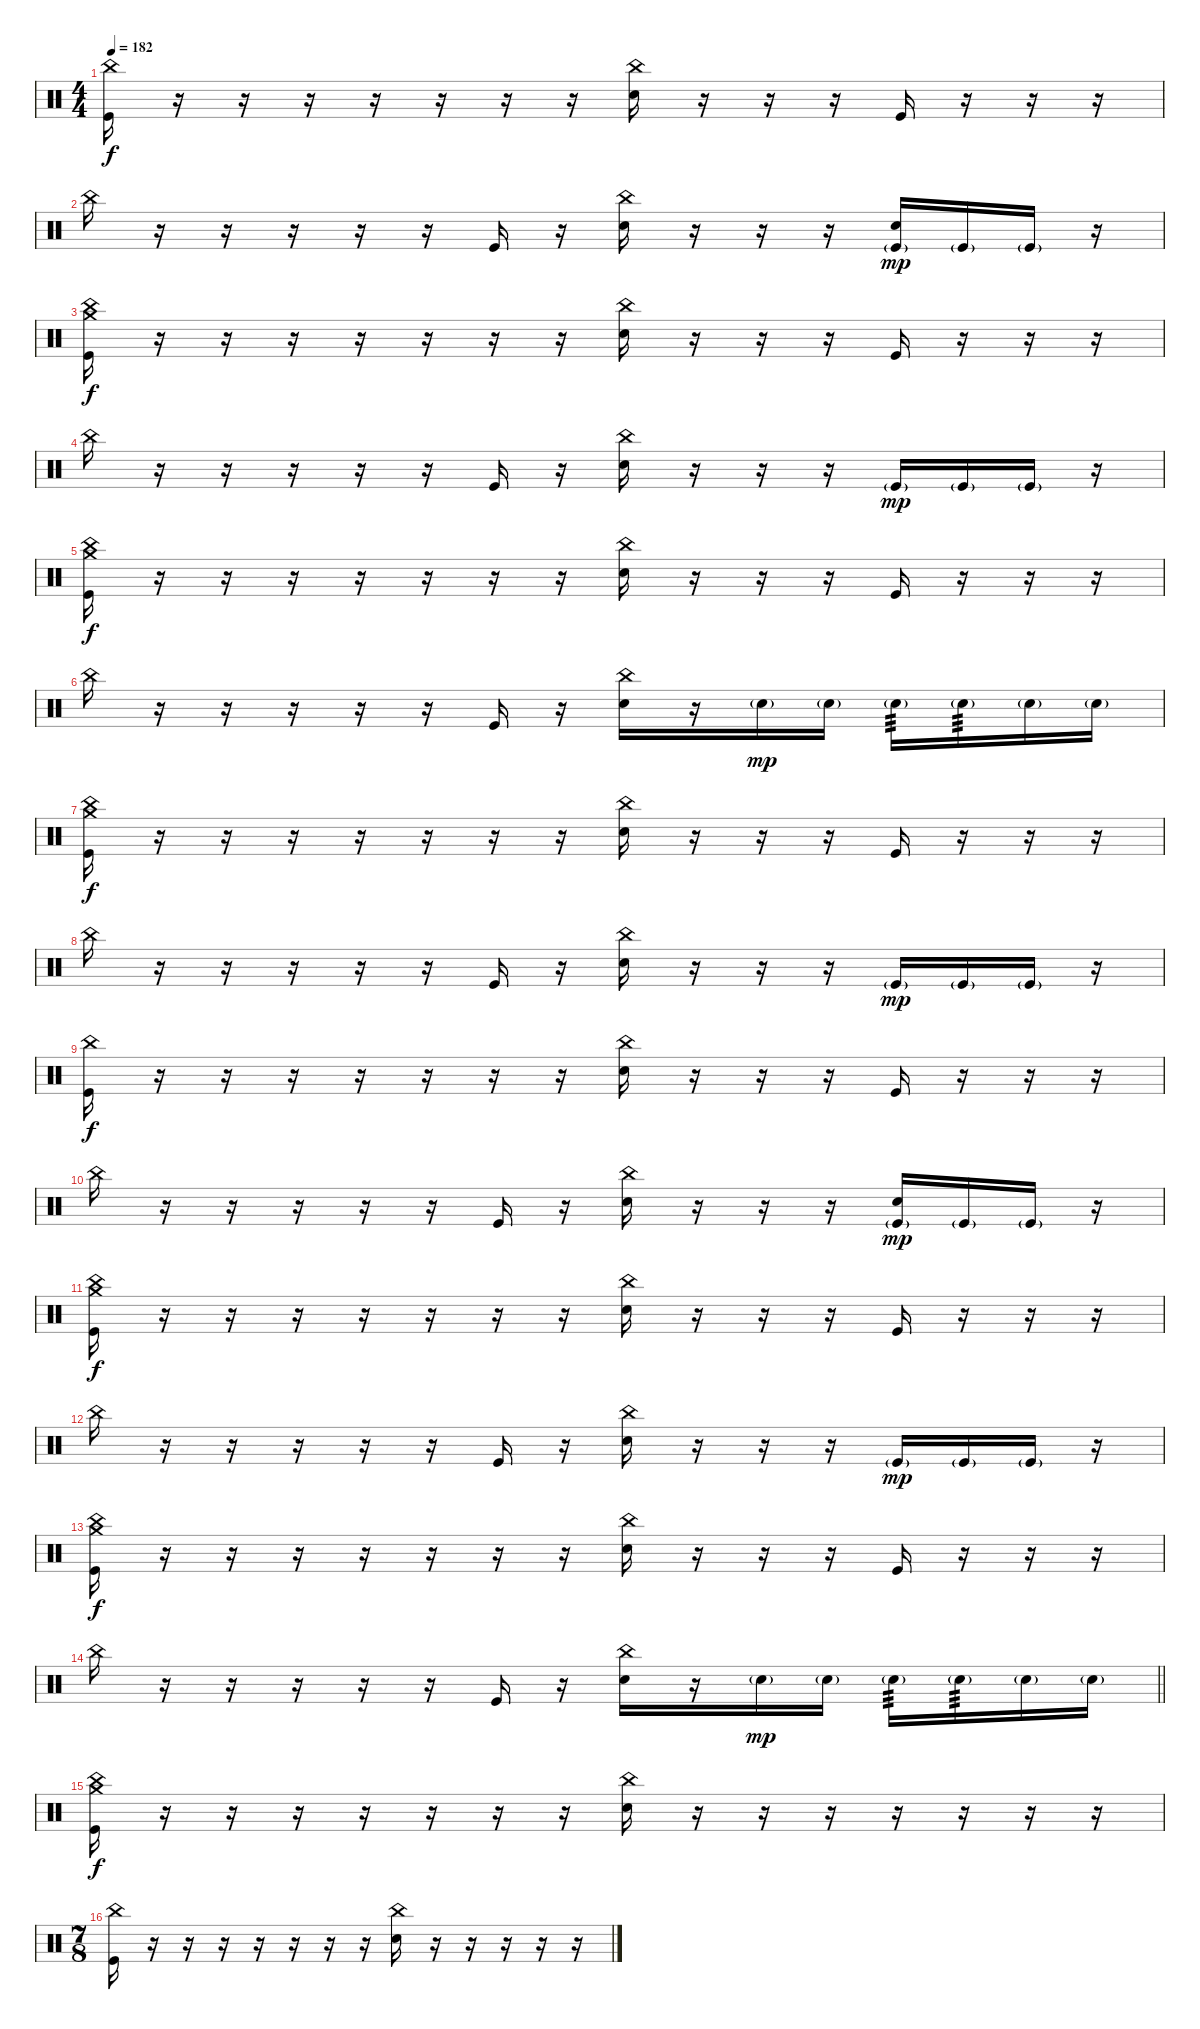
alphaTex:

\track "" {instrument percussion}
\staff {score}
\articulation defaults
\ts (4 4)
\tempo 182
\clef neutral
\ks c
("Kick (hit)" "China (hit)").16{dy f} r.16 r.16 r.16 r.16 r.16 r.16 r.16 ("China (hit)" "Electric Snare (hit)").16 r.16 r.16 r.16 "Kick (hit)".16 r.16 r.16 r.16 |
"China (hit)".16 r.16 r.16 r.16 r.16 r.16 "Kick (hit)".16 r.16 ("China (hit)" "Electric Snare (hit)").16 r.16 r.16 r.16 ("Kick (hit)"{g} "Electric Snare (hit)").16{dy mp} "Kick (hit)"{g}.16 "Kick (hit)"{g}.16 r.16 |
("Crash medium (hit)" "Kick (hit)" "China (hit)").16{dy f} r.16 r.16 r.16 r.16 r.16 r.16 r.16 ("China (hit)" "Electric Snare (hit)").16 r.16 r.16 r.16 "Kick (hit)".16 r.16 r.16 r.16 |
"China (hit)".16 r.16 r.16 r.16 r.16 r.16 "Kick (hit)".16 r.16 ("China (hit)" "Electric Snare (hit)").16 r.16 r.16 r.16 "Kick (hit)"{g}.16{dy mp} "Kick (hit)"{g}.16 "Kick (hit)"{g}.16 r.16 |
("Crash medium (hit)" "Kick (hit)" "China (hit)").16{dy f} r.16 r.16 r.16 r.16 r.16 r.16 r.16 ("China (hit)" "Electric Snare (hit)").16 r.16 r.16 r.16 "Kick (hit)".16 r.16 r.16 r.16 |
"China (hit)".16 r.16 r.16 r.16 r.16 r.16 "Kick (hit)".16 r.16 ("China (hit)" "Electric Snare (hit)").16 r.16 "Electric Snare (hit)"{g}.16{dy mp} "Electric Snare (hit)"{g}.16 "Electric Snare (hit)"{g}.16{tp 3} "Electric Snare (hit)"{g}.16{tp 3} "Electric Snare (hit)"{g}.16 "Electric Snare (hit)"{g}.16 |
("Crash medium (hit)" "Kick (hit)" "China (hit)").16{dy f} r.16 r.16 r.16 r.16 r.16 r.16 r.16 ("China (hit)" "Electric Snare (hit)").16 r.16 r.16 r.16 "Kick (hit)".16 r.16 r.16 r.16 |
"China (hit)".16 r.16 r.16 r.16 r.16 r.16 "Kick (hit)".16 r.16 ("China (hit)" "Electric Snare (hit)").16 r.16 r.16 r.16 "Kick (hit)"{g}.16{dy mp} "Kick (hit)"{g}.16 "Kick (hit)"{g}.16 r.16 |
("Kick (hit)" "China (hit)").16{dy f} r.16 r.16 r.16 r.16 r.16 r.16 r.16 ("China (hit)" "Electric Snare (hit)").16 r.16 r.16 r.16 "Kick (hit)".16 r.16 r.16 r.16 |
"China (hit)".16 r.16 r.16 r.16 r.16 r.16 "Kick (hit)".16 r.16 ("China (hit)" "Electric Snare (hit)").16 r.16 r.16 r.16 ("Kick (hit)"{g} "Electric Snare (hit)").16{dy mp} "Kick (hit)"{g}.16 "Kick (hit)"{g}.16 r.16 |
("Crash medium (hit)" "Kick (hit)" "China (hit)").16{dy f} r.16 r.16 r.16 r.16 r.16 r.16 r.16 ("China (hit)" "Electric Snare (hit)").16 r.16 r.16 r.16 "Kick (hit)".16 r.16 r.16 r.16 |
"China (hit)".16 r.16 r.16 r.16 r.16 r.16 "Kick (hit)".16 r.16 ("China (hit)" "Electric Snare (hit)").16 r.16 r.16 r.16 "Kick (hit)"{g}.16{dy mp} "Kick (hit)"{g}.16 "Kick (hit)"{g}.16 r.16 |
("Crash medium (hit)" "Kick (hit)" "China (hit)").16{dy f} r.16 r.16 r.16 r.16 r.16 r.16 r.16 ("China (hit)" "Electric Snare (hit)").16 r.16 r.16 r.16 "Kick (hit)".16 r.16 r.16 r.16 |
\barLineRight lightlight "China (hit)".16
r.16 r.16 r.16 r.16 r.16 "Kick (hit)".16 r.16 ("China (hit)" "Electric Snare (hit)").16 r.16 "Electric Snare (hit)"{g}.16{dy mp} "Electric Snare (hit)"{g}.16 "Electric Snare (hit)"{g}.16{tp 3} "Electric Snare (hit)"{g}.16{tp 3} "Electric Snare (hit)"{g}.16 "Electric Snare (hit)"{g}.16 |
("Crash medium (hit)" "Kick (hit)" "China (hit)").16{dy f} r.16 r.16 r.16 r.16 r.16 r.16 r.16 ("China (hit)" "Electric Snare (hit)").16 r.16 r.16 r.16 r.16 r.16 r.16 r.16 |
\ts (7 8)
("Kick (hit)" "China (hit)").16 r.16 r.16 r.16 r.16 r.16 r.16 r.16 ("China (hit)" "Electric Snare (hit)").16 r.16 r.16 r.16 r.16 r.16
